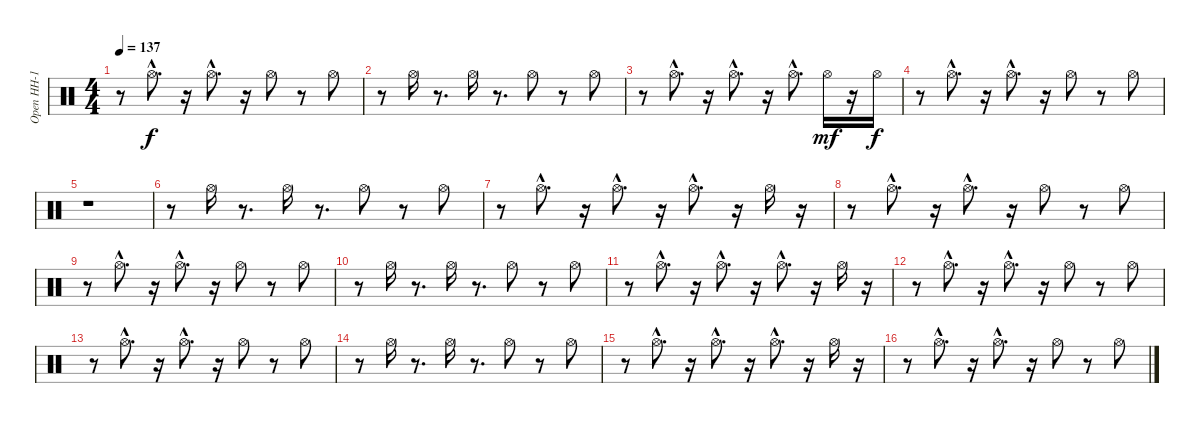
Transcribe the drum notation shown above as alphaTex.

\track ("Open HH-1" "Open HH-1") {instrument percussion}
\staff {score}
\articulation defaults
\ts (4 4)
\tempo 137
\clef neutral
\ks c
r.8{dy f} "Hi-Hat (open)"{hac}.8{d} r.16 "Hi-Hat (open)"{hac}.8{d} r.16 "Hi-Hat (open)".8 r.8 "Hi-Hat (open)".8 |
r.8 "Hi-Hat (open)".16 r.8{d} "Hi-Hat (open)".16 r.8{d} "Hi-Hat (open)".8 r.8 "Hi-Hat (open)".8 |
r.8 "Hi-Hat (open)"{hac}.8{d} r.16 "Hi-Hat (open)"{hac}.8{d} r.16 "Hi-Hat (open)"{hac}.8{d} "Hi-Hat (open)".16{dy mf} r.16 "Hi-Hat (open)".16{dy f} |
r.8 "Hi-Hat (open)"{hac}.8{d} r.16 "Hi-Hat (open)"{hac}.8{d} r.16 "Hi-Hat (open)".8 r.8 "Hi-Hat (open)".8 |
r.1 |
r.8 "Hi-Hat (open)".16 r.8{d} "Hi-Hat (open)".16 r.8{d} "Hi-Hat (open)".8 r.8 "Hi-Hat (open)".8 |
r.8 "Hi-Hat (open)"{hac}.8{d} r.16 "Hi-Hat (open)"{hac}.8{d} r.16 "Hi-Hat (open)"{hac}.8{d} r.16 "Hi-Hat (open)".16 r.16 |
r.8 "Hi-Hat (open)"{hac}.8{d} r.16 "Hi-Hat (open)"{hac}.8{d} r.16 "Hi-Hat (open)".8 r.8 "Hi-Hat (open)".8 |
r.8 "Hi-Hat (open)"{hac}.8{d} r.16 "Hi-Hat (open)"{hac}.8{d} r.16 "Hi-Hat (open)".8 r.8 "Hi-Hat (open)".8 |
r.8 "Hi-Hat (open)".16 r.8{d} "Hi-Hat (open)".16 r.8{d} "Hi-Hat (open)".8 r.8 "Hi-Hat (open)".8 |
r.8 "Hi-Hat (open)"{hac}.8{d} r.16 "Hi-Hat (open)"{hac}.8{d} r.16 "Hi-Hat (open)"{hac}.8{d} r.16 "Hi-Hat (open)".16 r.16 |
r.8 "Hi-Hat (open)"{hac}.8{d} r.16 "Hi-Hat (open)"{hac}.8{d} r.16 "Hi-Hat (open)".8 r.8 "Hi-Hat (open)".8 |
r.8 "Hi-Hat (open)"{hac}.8{d} r.16 "Hi-Hat (open)"{hac}.8{d} r.16 "Hi-Hat (open)".8 r.8 "Hi-Hat (open)".8 |
r.8 "Hi-Hat (open)".16 r.8{d} "Hi-Hat (open)".16 r.8{d} "Hi-Hat (open)".8 r.8 "Hi-Hat (open)".8 |
r.8 "Hi-Hat (open)"{hac}.8{d} r.16 "Hi-Hat (open)"{hac}.8{d} r.16 "Hi-Hat (open)"{hac}.8{d} r.16 "Hi-Hat (open)".16 r.16 |
r.8 "Hi-Hat (open)"{hac}.8{d} r.16 "Hi-Hat (open)"{hac}.8{d} r.16 "Hi-Hat (open)".8 r.8 "Hi-Hat (open)".8
